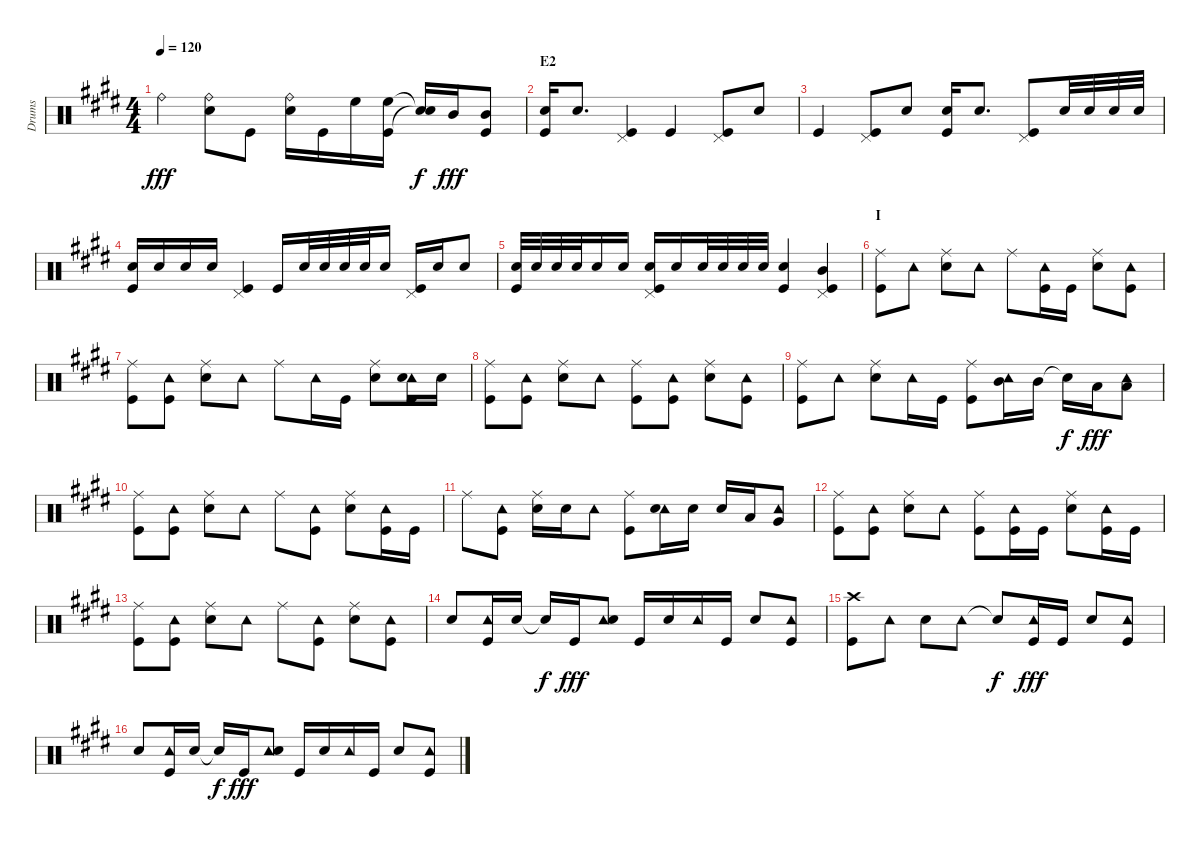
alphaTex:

\track ("Drums" "Drums") {instrument percussion}
\staff {score}
\articulation defaults
\ts (4 4)
\tempo 120
\clef neutral
\ks e "Ride (bell)".4{dy fff}
("Ride (bell)" "Snare (hit) 2").8 "Kick (hit)".8 ("Ride (bell)" "Snare (hit) 2").16 "Kick (hit)".16 "High Floor Tom (hit)".16 ("High Floor Tom (hit)" "Kick (hit)").16 ("Snare (hit)"{t} "Snare (hit)"{t}).16{dy f} "Mid Tom (hit)".16{dy fff} ("Mid Tom (hit)" "Kick (hit)").8 |
\section ("" "E2")
("Snare (hit) 2" "Kick (hit)").16 "Snare (hit) 2".8{d} ("Pedal Hi-Hat (hit)" "Kick (hit)").4 "Kick (hit)".4 ("Pedal Hi-Hat (hit)" "Kick (hit)").8 "Snare (hit) 2".8 |
"Kick (hit)".4 ("Pedal Hi-Hat (hit)" "Kick (hit)").8 "Snare (hit) 2".8 ("Snare (hit) 2" "Kick (hit)").16 "Snare (hit) 2".8{d} ("Pedal Hi-Hat (hit)" "Kick (hit)").8 "Snare (hit) 2".32 "Snare (hit) 2".32 "Snare (hit) 2".32 "Snare (hit) 2".32 |
("Snare (hit) 2" "Kick (hit)").16 "Snare (hit) 2".16 "Snare (hit) 2".16 "Snare (hit) 2".16 ("Pedal Hi-Hat (hit)" "Kick (hit)").4 "Kick (hit)".16 "Snare (hit) 2".32 "Snare (hit) 2".32 "Snare (hit) 2".32 "Snare (hit) 2".32 "Snare (hit) 2".16 ("Pedal Hi-Hat (hit)" "Kick (hit)").16 "Snare (hit) 2".16 "Snare (hit) 2".8 |
("Snare (hit) 2" "Kick (hit)").32 "Snare (hit) 2".32 "Snare (hit) 2".32 "Snare (hit) 2".32 "Snare (hit) 2".16 "Snare (hit) 2".16 ("Pedal Hi-Hat (hit)" "Snare (hit) 2" "Kick (hit)").16 "Snare (hit) 2".16 "Snare (hit) 2".32 "Snare (hit) 2".32 "Snare (hit) 2".32 "Snare (hit) 2".32 ("Snare (hit) 2" "Kick (hit)").4 ("Pedal Hi-Hat (hit)" "Mid Tom (hit)" "Kick (hit)").4 |
\section ("" "I")
("Ride (middle)" "Kick (hit)").8 "Tambourine (hit)".8 ("Ride (middle)" "Snare (hit) 2").8 "Tambourine (hit)".8 "Ride (middle)".8 ("Tambourine (hit)" "Kick (hit)").16 "Kick (hit)".16 ("Ride (middle)" "Snare (hit) 2").8 ("Tambourine (hit)" "Kick (hit)").8 |
("Ride (middle)" "Kick (hit)").8 ("Tambourine (hit)" "Kick (hit)").8 ("Ride (middle)" "Snare (hit) 2").8 "Tambourine (hit)".8 "Ride (middle)".8 "Tambourine (hit)".16 "Kick (hit)".16 ("Ride (middle)" "Snare (hit) 2").8 ("Tambourine (hit)" "Snare (hit) 2" "Kick (hit)").16 "Snare (hit) 2".16 |
("Ride (middle)" "Kick (hit)").8 ("Tambourine (hit)" "Kick (hit)").8 ("Ride (middle)" "Snare (hit) 2").8 "Tambourine (hit)".8 ("Ride (middle)" "Kick (hit)").8 ("Tambourine (hit)" "Kick (hit)").8 ("Ride (middle)" "Snare (hit) 2").8 ("Tambourine (hit)" "Kick (hit)").8 |
("Ride (middle)" "Kick (hit)").8 "Tambourine (hit)".8 ("Ride (middle)" "Snare (hit) 2").8 "Tambourine (hit)".16 "Kick (hit)".16 ("Ride (middle)" "Kick (hit)").8 ("Tambourine (hit)" "Mid Tom (hit)").16 "Mid Tom (hit)".16 "Snare (hit)"{t}.16{dy f} "Low Tom (hit)".16{dy fff} ("Tambourine (hit)" "Low Tom (hit)").8 |
("Ride (middle)" "Kick (hit)").8 ("Tambourine (hit)" "Kick (hit)").8 ("Ride (middle)" "Snare (hit) 2").8 "Tambourine (hit)".8 "Ride (middle)".8 ("Tambourine (hit)" "Kick (hit)").8 ("Ride (middle)" "Snare (hit) 2").8 ("Tambourine (hit)" "Kick (hit)").16 "Kick (hit)".16 |
"Ride (middle)".8 ("Tambourine (hit)" "Kick (hit)").8 ("Ride (middle)" "Snare (hit) 2").16 "Snare (hit) 2".16 "Tambourine (hit)".8 ("Ride (middle)" "Kick (hit)").8 ("Tambourine (hit)" "Snare (hit) 2").16 "Snare (hit) 2".16 "Snare (hit) 2".16 "Low Tom (hit)".16 ("Tambourine (hit)" "Very Low Tom (hit)").8 |
("Ride (middle)" "Kick (hit)").8 ("Tambourine (hit)" "Kick (hit)").8 ("Ride (middle)" "Snare (hit) 2").8 "Tambourine (hit)".8 ("Ride (middle)" "Kick (hit)").8 ("Tambourine (hit)" "Kick (hit)").16 "Kick (hit)".16 ("Ride (middle)" "Snare (hit) 2").8 ("Tambourine (hit)" "Kick (hit)").16 "Kick (hit)".16 |
("Ride (middle)" "Kick (hit)").8 ("Tambourine (hit)" "Kick (hit)").8 ("Ride (middle)" "Snare (hit) 2").8 "Tambourine (hit)".8 "Ride (middle)".8 ("Tambourine (hit)" "Kick (hit)").8 ("Ride (middle)" "Snare (hit) 2").8 ("Tambourine (hit)" "Kick (hit)").8 |
"Snare (hit) 2".8 ("Tambourine (hit)" "Kick (hit)").16 "Snare (hit) 2".16 "Snare (hit)"{t}.16{dy f} "Kick (hit)".16{dy fff} ("Tambourine (hit)" "Snare (hit) 2").8 "Kick (hit)".16 "Snare (hit) 2".16 "Tambourine (hit)".16 "Kick (hit)".16 "Snare (hit) 2".8 ("Tambourine (hit)" "Kick (hit)").8 |
("Crash high (hit)" "Kick (hit)").8 "Tambourine (hit)".8 "Snare (hit) 2".8 "Tambourine (hit)".8 "Snare (hit)"{t}.8{dy f} ("Tambourine (hit)" "Kick (hit)").16{dy fff} "Kick (hit)".16 "Snare (hit) 2".8 ("Tambourine (hit)" "Kick (hit)").8 |
"Snare (hit) 2".8 ("Tambourine (hit)" "Kick (hit)").16 "Snare (hit) 2".16 "Snare (hit)"{t}.16{dy f} "Kick (hit)".16{dy fff} ("Tambourine (hit)" "Snare (hit) 2").8 "Kick (hit)".16 "Snare (hit) 2".16 "Tambourine (hit)".16 "Kick (hit)".16 "Snare (hit) 2".8 ("Tambourine (hit)" "Kick (hit)").8
